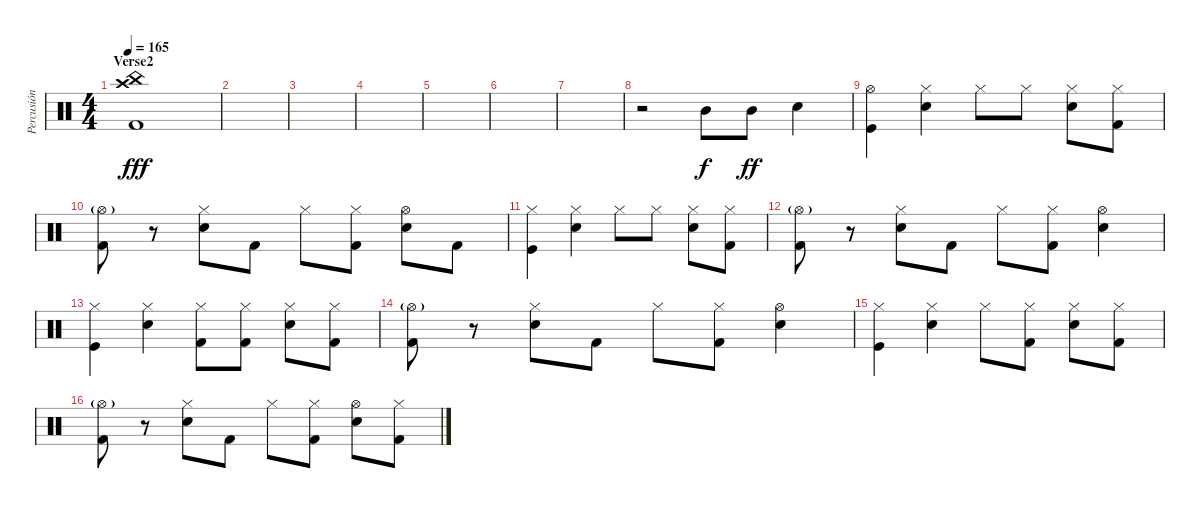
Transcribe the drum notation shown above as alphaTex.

\track ("Percusión" "Percusión") {instrument percussion}
\staff {score}
\articulation defaults
\ts (4 4)
\section ("" "Verse2")
\tempo 165
\clef neutral
\ks c
("Crash high (hit)" "Kick (hit) 2" "China (hit)").1{dy fff} |
|
|
|
|
|
|
r.2 "Mid Tom (hit)".8{dy f} "Mid Tom (hit)".8{dy ff} "Electric Snare (hit)".4 |
("Kick (hit)" "Hi-Hat (open)").4 ("Electric Snare (hit)" "Hi-Hat (closed)").4 "Hi-Hat (closed)".8 "Hi-Hat (closed)".8 ("Electric Snare (hit)" "Hi-Hat (closed)").8 ("Kick (hit) 2" "Hi-Hat (closed)").8 |
("Kick (hit) 2" "Hi-Hat (open)"{g}).8 r.8 ("Electric Snare (hit)" "Hi-Hat (closed)").8 "Kick (hit) 2".8 "Hi-Hat (closed)".8 ("Kick (hit) 2" "Hi-Hat (closed)").8 ("Electric Snare (hit)" "Hi-Hat (open)").8 "Kick (hit) 2".8 |
("Kick (hit)" "Hi-Hat (closed)").4 ("Electric Snare (hit)" "Hi-Hat (closed)").4 "Hi-Hat (closed)".8 "Hi-Hat (closed)".8 ("Electric Snare (hit)" "Hi-Hat (closed)").8 ("Kick (hit) 2" "Hi-Hat (closed)").8 |
("Kick (hit) 2" "Hi-Hat (open)"{g}).8 r.8 ("Electric Snare (hit)" "Hi-Hat (closed)").8 "Kick (hit) 2".8 "Hi-Hat (closed)".8 ("Kick (hit) 2" "Hi-Hat (closed)").8 ("Electric Snare (hit)" "Hi-Hat (open)").4 |
("Kick (hit)" "Hi-Hat (closed)").4 ("Electric Snare (hit)" "Hi-Hat (closed)").4 ("Kick (hit) 2" "Hi-Hat (closed)").8 ("Kick (hit) 2" "Hi-Hat (closed)").8 ("Electric Snare (hit)" "Hi-Hat (closed)").8 ("Kick (hit) 2" "Hi-Hat (closed)").8 |
("Kick (hit) 2" "Hi-Hat (open)"{g}).8 r.8 ("Electric Snare (hit)" "Hi-Hat (closed)").8 "Kick (hit) 2".8 "Hi-Hat (closed)".8 ("Kick (hit) 2" "Hi-Hat (closed)").8 ("Electric Snare (hit)" "Hi-Hat (open)").4 |
("Kick (hit)" "Hi-Hat (closed)").4 ("Electric Snare (hit)" "Hi-Hat (closed)").4 "Hi-Hat (closed)".8 ("Kick (hit) 2" "Hi-Hat (closed)").8 ("Electric Snare (hit)" "Hi-Hat (closed)").8 ("Kick (hit) 2" "Hi-Hat (closed)").8 |
("Kick (hit) 2" "Hi-Hat (open)"{g}).8 r.8 ("Electric Snare (hit)" "Hi-Hat (closed)").8 "Kick (hit) 2".8 "Hi-Hat (closed)".8 ("Kick (hit) 2" "Hi-Hat (closed)").8 ("Electric Snare (hit)" "Hi-Hat (open)").8 ("Kick (hit) 2" "Hi-Hat (closed)").8
